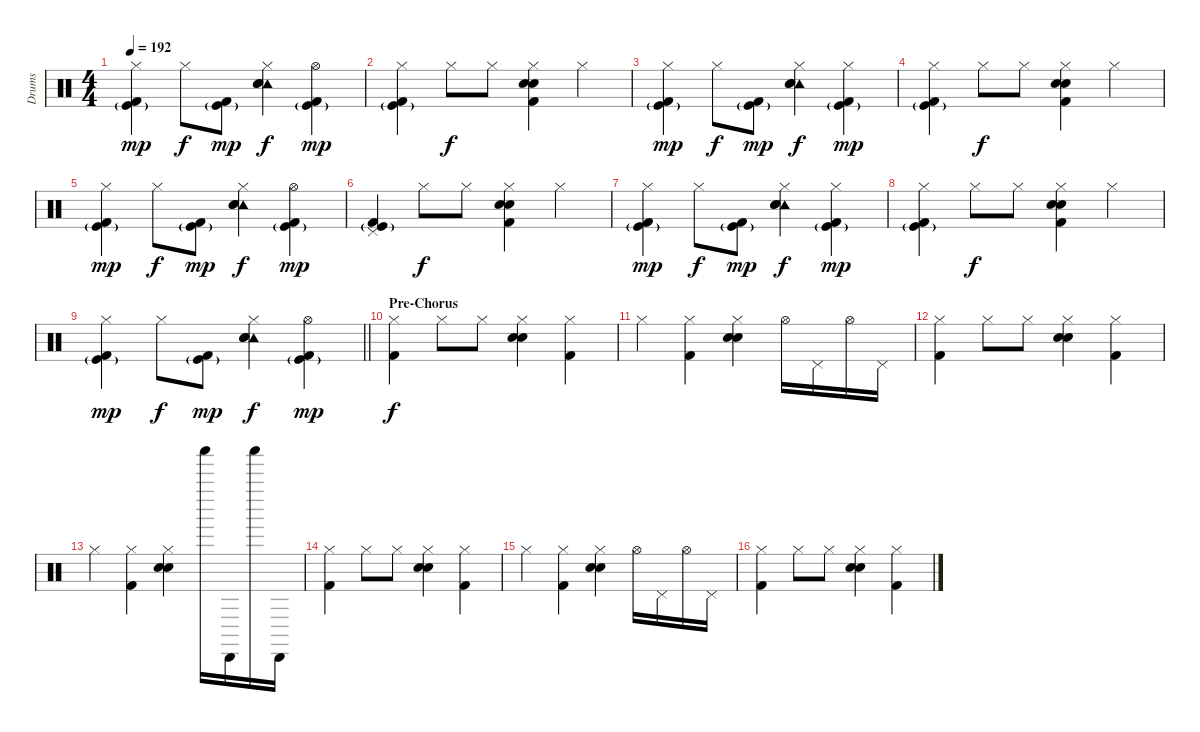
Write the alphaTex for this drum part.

\track ("Drums" "Drums") {instrument percussion}
\staff {score}
\articulation defaults
\ts (4 4)
\tempo 192
\clef neutral
\ks c
("Hi-Hat (closed)" "Kick (hit)"{g} "Kick (hit) 2").4{dy mp} "Hi-Hat (closed)".8{dy f} ("Kick (hit)"{g} "Kick (hit) 2").8{dy mp} ("Hi-Hat (closed)" "Tambourine (hit)" "Electric Snare (hit)" "Hand Clap (hit)").4{dy f} ("Hi-Hat (open)" "Kick (hit)"{g} "Kick (hit) 2").4{dy mp} |
("Hi-Hat (closed)" "Kick (hit)"{g} "Kick (hit) 2").4 "Hi-Hat (closed)".8{dy f} "Hi-Hat (closed)".8 ("Hi-Hat (closed)" "Electric Snare (hit)" "Hand Clap (hit)" "Kick (hit) 2").4 "Hi-Hat (closed)".4 |
("Hi-Hat (closed)" "Kick (hit)"{g} "Kick (hit) 2").4{dy mp} "Hi-Hat (closed)".8{dy f} ("Kick (hit)"{g} "Kick (hit) 2").8{dy mp} ("Hi-Hat (closed)" "Tambourine (hit)" "Electric Snare (hit)" "Hand Clap (hit)").4{dy f} ("Hi-Hat (closed)" "Kick (hit)"{g} "Kick (hit) 2").4{dy mp} |
("Hi-Hat (closed)" "Kick (hit)"{g} "Kick (hit) 2").4 "Hi-Hat (closed)".8{dy f} "Hi-Hat (closed)".8 ("Hi-Hat (closed)" "Electric Snare (hit)" "Hand Clap (hit)" "Kick (hit) 2").4 "Hi-Hat (closed)".4 |
("Hi-Hat (closed)" "Kick (hit)"{g} "Kick (hit) 2").4{dy mp} "Hi-Hat (closed)".8{dy f} ("Kick (hit)"{g} "Kick (hit) 2").8{dy mp} ("Hi-Hat (closed)" "Tambourine (hit)" "Electric Snare (hit)" "Hand Clap (hit)").4{dy f} ("Hi-Hat (open)" "Kick (hit)"{g} "Kick (hit) 2").4{dy mp} |
("Pedal Hi-Hat (hit)" "Kick (hit)"{g} "Kick (hit) 2").4 "Hi-Hat (closed)".8{dy f} "Hi-Hat (closed)".8 ("Hi-Hat (closed)" "Electric Snare (hit)" "Hand Clap (hit)" "Kick (hit) 2").4 "Hi-Hat (closed)".4 |
("Hi-Hat (closed)" "Kick (hit)"{g} "Kick (hit) 2").4{dy mp} "Hi-Hat (closed)".8{dy f} ("Kick (hit)"{g} "Kick (hit) 2").8{dy mp} ("Hi-Hat (closed)" "Tambourine (hit)" "Electric Snare (hit)" "Hand Clap (hit)").4{dy f} ("Hi-Hat (closed)" "Kick (hit)"{g} "Kick (hit) 2").4{dy mp} |
("Hi-Hat (closed)" "Kick (hit)"{g} "Kick (hit) 2").4 "Hi-Hat (closed)".8{dy f} "Hi-Hat (closed)".8 ("Hi-Hat (closed)" "Electric Snare (hit)" "Hand Clap (hit)" "Kick (hit) 2").4 "Hi-Hat (closed)".4 |
\barLineRight lightlight
("Hi-Hat (closed)" "Kick (hit)"{g} "Kick (hit) 2").4{dy mp} "Hi-Hat (closed)".8{dy f} ("Kick (hit)"{g} "Kick (hit) 2").8{dy mp} ("Hi-Hat (closed)" "Tambourine (hit)" "Electric Snare (hit)" "Hand Clap (hit)").4{dy f} ("Hi-Hat (open)" "Kick (hit)"{g} "Kick (hit) 2").4{dy mp} |
\section ("" "Pre-Chorus")
("Hi-Hat (closed)" "Kick (hit) 2").4{dy f} "Hi-Hat (closed)".8 "Hi-Hat (closed)".8 ("Hi-Hat (closed)" "Electric Snare (hit)" "Hand Clap (hit)").4 ("Hi-Hat (closed)" "Kick (hit) 2").4 |
"Hi-Hat (closed)".4 ("Hi-Hat (closed)" "Kick (hit) 2").4 ("Hi-Hat (closed)" "Electric Snare (hit)" "Hand Clap (hit)").4 "Hi-Hat (open)".16 "Pedal Hi-Hat (hit)".16 "Hi-Hat (open)".16 "Pedal Hi-Hat (hit)".16 |
("Hi-Hat (closed)" "Kick (hit) 2").4 "Hi-Hat (closed)".8 "Hi-Hat (closed)".8 ("Hi-Hat (closed)" "Electric Snare (hit)" "Hand Clap (hit)").4 ("Hi-Hat (closed)" "Kick (hit) 2").4 |
"Hi-Hat (closed)".4 ("Hi-Hat (closed)" "Kick (hit) 2").4 ("Hi-Hat (closed)" "Electric Snare (hit)" "Hand Clap (hit)").4 "Shaker (hit)".16 "Cabasa (hit)".16 "Shaker (hit)".16 "Cabasa (hit)".16 |
("Hi-Hat (closed)" "Kick (hit) 2").4 "Hi-Hat (closed)".8 "Hi-Hat (closed)".8 ("Hi-Hat (closed)" "Electric Snare (hit)" "Hand Clap (hit)").4 ("Hi-Hat (closed)" "Kick (hit) 2").4 |
"Hi-Hat (closed)".4 ("Hi-Hat (closed)" "Kick (hit) 2").4 ("Hi-Hat (closed)" "Electric Snare (hit)" "Hand Clap (hit)").4 "Hi-Hat (open)".16 "Pedal Hi-Hat (hit)".16 "Hi-Hat (open)".16 "Pedal Hi-Hat (hit)".16 |
("Hi-Hat (closed)" "Kick (hit) 2").4 "Hi-Hat (closed)".8 "Hi-Hat (closed)".8 ("Hi-Hat (closed)" "Electric Snare (hit)" "Hand Clap (hit)").4 ("Hi-Hat (closed)" "Kick (hit) 2").4
